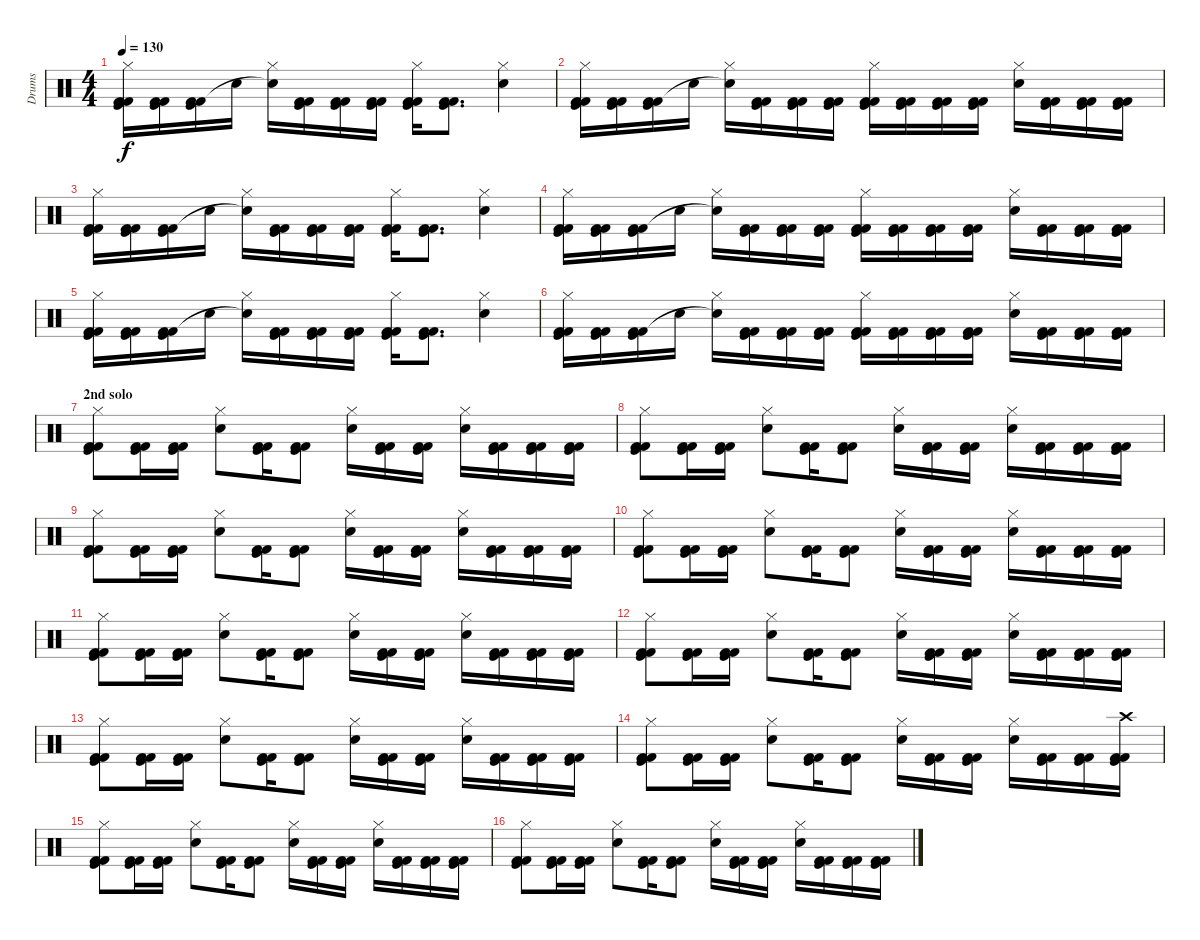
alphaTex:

\track ("Drums" "Drums") {instrument percussion}
\staff {score}
\articulation defaults
\ts (4 4)
\tempo 130
\clef neutral
\ks c
("Hi-Hat (closed)" "Kick (hit)" "Kick (hit) 2" "Kick (hit) 2").16{dy f} ("Kick (hit)" "Kick (hit) 2" "Kick (hit) 2").16 ("Kick (hit)" "Kick (hit) 2" "Kick (hit) 2").16 "Electric Snare (hit)".16 ("Hi-Hat (closed)" "Snare (hit)"{t}).16 ("Kick (hit)" "Kick (hit) 2" "Kick (hit) 2").16 ("Kick (hit)" "Kick (hit) 2" "Kick (hit) 2").16 ("Kick (hit)" "Kick (hit) 2" "Kick (hit) 2").16 ("Hi-Hat (closed)" "Kick (hit)" "Kick (hit) 2" "Kick (hit) 2").16 ("Kick (hit)" "Kick (hit) 2" "Kick (hit) 2").8{d} ("Hi-Hat (closed)" "Electric Snare (hit)").4 |
("Hi-Hat (closed)" "Kick (hit)" "Kick (hit) 2" "Kick (hit) 2").16 ("Kick (hit)" "Kick (hit) 2" "Kick (hit) 2").16 ("Kick (hit)" "Kick (hit) 2" "Kick (hit) 2").16 "Electric Snare (hit)".16 ("Hi-Hat (closed)" "Snare (hit)"{t}).16 ("Kick (hit)" "Kick (hit) 2" "Kick (hit) 2").16 ("Kick (hit)" "Kick (hit) 2" "Kick (hit) 2").16 ("Kick (hit)" "Kick (hit) 2" "Kick (hit) 2").16 ("Hi-Hat (closed)" "Kick (hit)" "Kick (hit) 2" "Kick (hit) 2").16 ("Kick (hit)" "Kick (hit) 2" "Kick (hit) 2").16 ("Kick (hit)" "Kick (hit) 2" "Kick (hit) 2").16 ("Kick (hit)" "Kick (hit) 2" "Kick (hit) 2").16 ("Hi-Hat (closed)" "Electric Snare (hit)").16 ("Kick (hit)" "Kick (hit) 2" "Kick (hit) 2").16 ("Kick (hit)" "Kick (hit) 2" "Kick (hit) 2").16 ("Kick (hit)" "Kick (hit) 2" "Kick (hit) 2").16 |
("Hi-Hat (closed)" "Kick (hit)" "Kick (hit) 2" "Kick (hit) 2").16 ("Kick (hit)" "Kick (hit) 2" "Kick (hit) 2").16 ("Kick (hit)" "Kick (hit) 2" "Kick (hit) 2").16 "Electric Snare (hit)".16 ("Hi-Hat (closed)" "Snare (hit)"{t}).16 ("Kick (hit)" "Kick (hit) 2" "Kick (hit) 2").16 ("Kick (hit)" "Kick (hit) 2" "Kick (hit) 2").16 ("Kick (hit)" "Kick (hit) 2" "Kick (hit) 2").16 ("Hi-Hat (closed)" "Kick (hit)" "Kick (hit) 2" "Kick (hit) 2").16 ("Kick (hit)" "Kick (hit) 2" "Kick (hit) 2").8{d} ("Hi-Hat (closed)" "Electric Snare (hit)").4 |
("Hi-Hat (closed)" "Kick (hit)" "Kick (hit) 2" "Kick (hit) 2").16 ("Kick (hit)" "Kick (hit) 2" "Kick (hit) 2").16 ("Kick (hit)" "Kick (hit) 2" "Kick (hit) 2").16 "Electric Snare (hit)".16 ("Hi-Hat (closed)" "Snare (hit)"{t}).16 ("Kick (hit)" "Kick (hit) 2" "Kick (hit) 2").16 ("Kick (hit)" "Kick (hit) 2" "Kick (hit) 2").16 ("Kick (hit)" "Kick (hit) 2" "Kick (hit) 2").16 ("Hi-Hat (closed)" "Kick (hit)" "Kick (hit) 2" "Kick (hit) 2").16 ("Kick (hit)" "Kick (hit) 2" "Kick (hit) 2").16 ("Kick (hit)" "Kick (hit) 2" "Kick (hit) 2").16 ("Kick (hit)" "Kick (hit) 2" "Kick (hit) 2").16 ("Hi-Hat (closed)" "Electric Snare (hit)").16 ("Kick (hit)" "Kick (hit) 2" "Kick (hit) 2").16 ("Kick (hit)" "Kick (hit) 2" "Kick (hit) 2").16 ("Kick (hit)" "Kick (hit) 2" "Kick (hit) 2").16 |
("Hi-Hat (closed)" "Kick (hit)" "Kick (hit) 2" "Kick (hit) 2").16 ("Kick (hit)" "Kick (hit) 2" "Kick (hit) 2").16 ("Kick (hit)" "Kick (hit) 2" "Kick (hit) 2").16 "Electric Snare (hit)".16 ("Hi-Hat (closed)" "Snare (hit)"{t}).16 ("Kick (hit)" "Kick (hit) 2" "Kick (hit) 2").16 ("Kick (hit)" "Kick (hit) 2" "Kick (hit) 2").16 ("Kick (hit)" "Kick (hit) 2" "Kick (hit) 2").16 ("Hi-Hat (closed)" "Kick (hit)" "Kick (hit) 2" "Kick (hit) 2").16 ("Kick (hit)" "Kick (hit) 2" "Kick (hit) 2").8{d} ("Hi-Hat (closed)" "Electric Snare (hit)").4 |
("Hi-Hat (closed)" "Kick (hit)" "Kick (hit) 2" "Kick (hit) 2").16 ("Kick (hit)" "Kick (hit) 2" "Kick (hit) 2").16 ("Kick (hit)" "Kick (hit) 2" "Kick (hit) 2").16 "Electric Snare (hit)".16 ("Hi-Hat (closed)" "Snare (hit)"{t}).16 ("Kick (hit)" "Kick (hit) 2" "Kick (hit) 2").16 ("Kick (hit)" "Kick (hit) 2" "Kick (hit) 2").16 ("Kick (hit)" "Kick (hit) 2" "Kick (hit) 2").16 ("Hi-Hat (closed)" "Kick (hit)" "Kick (hit) 2" "Kick (hit) 2").16 ("Kick (hit)" "Kick (hit) 2" "Kick (hit) 2").16 ("Kick (hit)" "Kick (hit) 2" "Kick (hit) 2").16 ("Kick (hit)" "Kick (hit) 2" "Kick (hit) 2").16 ("Hi-Hat (closed)" "Electric Snare (hit)").16 ("Kick (hit)" "Kick (hit) 2" "Kick (hit) 2").16 ("Kick (hit)" "Kick (hit) 2" "Kick (hit) 2").16 ("Kick (hit)" "Kick (hit) 2" "Kick (hit) 2").16 |
\section ("" "2nd solo")
("Hi-Hat (closed)" "Kick (hit)" "Kick (hit) 2" "Kick (hit) 2").8 ("Kick (hit)" "Kick (hit) 2" "Kick (hit) 2").16 ("Kick (hit)" "Kick (hit) 2" "Kick (hit) 2").16 ("Hi-Hat (closed)" "Electric Snare (hit)").8 ("Kick (hit)" "Kick (hit) 2" "Kick (hit) 2").16 ("Kick (hit)" "Kick (hit) 2" "Kick (hit) 2").8 ("Hi-Hat (closed)" "Electric Snare (hit)").16 ("Kick (hit)" "Kick (hit) 2" "Kick (hit) 2").16 ("Kick (hit)" "Kick (hit) 2" "Kick (hit) 2").16 ("Hi-Hat (closed)" "Electric Snare (hit)").16 ("Kick (hit)" "Kick (hit) 2" "Kick (hit) 2").16 ("Kick (hit)" "Kick (hit) 2" "Kick (hit) 2").16 ("Kick (hit)" "Kick (hit) 2" "Kick (hit) 2").16 |
("Hi-Hat (closed)" "Kick (hit)" "Kick (hit) 2" "Kick (hit) 2").8 ("Kick (hit)" "Kick (hit) 2" "Kick (hit) 2").16 ("Kick (hit)" "Kick (hit) 2" "Kick (hit) 2").16 ("Hi-Hat (closed)" "Electric Snare (hit)").8 ("Kick (hit)" "Kick (hit) 2" "Kick (hit) 2").16 ("Kick (hit)" "Kick (hit) 2" "Kick (hit) 2").8 ("Hi-Hat (closed)" "Electric Snare (hit)").16 ("Kick (hit)" "Kick (hit) 2" "Kick (hit) 2").16 ("Kick (hit)" "Kick (hit) 2" "Kick (hit) 2").16 ("Hi-Hat (closed)" "Electric Snare (hit)").16 ("Kick (hit)" "Kick (hit) 2" "Kick (hit) 2").16 ("Kick (hit)" "Kick (hit) 2" "Kick (hit) 2").16 ("Kick (hit)" "Kick (hit) 2" "Kick (hit) 2").16 |
("Hi-Hat (closed)" "Kick (hit)" "Kick (hit) 2" "Kick (hit) 2").8 ("Kick (hit)" "Kick (hit) 2" "Kick (hit) 2").16 ("Kick (hit)" "Kick (hit) 2" "Kick (hit) 2").16 ("Hi-Hat (closed)" "Electric Snare (hit)").8 ("Kick (hit)" "Kick (hit) 2" "Kick (hit) 2").16 ("Kick (hit)" "Kick (hit) 2" "Kick (hit) 2").8 ("Hi-Hat (closed)" "Electric Snare (hit)").16 ("Kick (hit)" "Kick (hit) 2" "Kick (hit) 2").16 ("Kick (hit)" "Kick (hit) 2" "Kick (hit) 2").16 ("Hi-Hat (closed)" "Electric Snare (hit)").16 ("Kick (hit)" "Kick (hit) 2" "Kick (hit) 2").16 ("Kick (hit)" "Kick (hit) 2" "Kick (hit) 2").16 ("Kick (hit)" "Kick (hit) 2" "Kick (hit) 2").16 |
("Hi-Hat (closed)" "Kick (hit)" "Kick (hit) 2" "Kick (hit) 2").8 ("Kick (hit)" "Kick (hit) 2" "Kick (hit) 2").16 ("Kick (hit)" "Kick (hit) 2" "Kick (hit) 2").16 ("Hi-Hat (closed)" "Electric Snare (hit)").8 ("Kick (hit)" "Kick (hit) 2" "Kick (hit) 2").16 ("Kick (hit)" "Kick (hit) 2" "Kick (hit) 2").8 ("Hi-Hat (closed)" "Electric Snare (hit)").16 ("Kick (hit)" "Kick (hit) 2" "Kick (hit) 2").16 ("Kick (hit)" "Kick (hit) 2" "Kick (hit) 2").16 ("Hi-Hat (closed)" "Electric Snare (hit)").16 ("Kick (hit)" "Kick (hit) 2" "Kick (hit) 2").16 ("Kick (hit)" "Kick (hit) 2" "Kick (hit) 2").16 ("Kick (hit)" "Kick (hit) 2" "Kick (hit) 2").16 |
("Hi-Hat (closed)" "Kick (hit)" "Kick (hit) 2" "Kick (hit) 2").8 ("Kick (hit)" "Kick (hit) 2" "Kick (hit) 2").16 ("Kick (hit)" "Kick (hit) 2" "Kick (hit) 2").16 ("Hi-Hat (closed)" "Electric Snare (hit)").8 ("Kick (hit)" "Kick (hit) 2" "Kick (hit) 2").16 ("Kick (hit)" "Kick (hit) 2" "Kick (hit) 2").8 ("Hi-Hat (closed)" "Electric Snare (hit)").16 ("Kick (hit)" "Kick (hit) 2" "Kick (hit) 2").16 ("Kick (hit)" "Kick (hit) 2" "Kick (hit) 2").16 ("Hi-Hat (closed)" "Electric Snare (hit)").16 ("Kick (hit)" "Kick (hit) 2" "Kick (hit) 2").16 ("Kick (hit)" "Kick (hit) 2" "Kick (hit) 2").16 ("Kick (hit)" "Kick (hit) 2" "Kick (hit) 2").16 |
("Hi-Hat (closed)" "Kick (hit)" "Kick (hit) 2" "Kick (hit) 2").8 ("Kick (hit)" "Kick (hit) 2" "Kick (hit) 2").16 ("Kick (hit)" "Kick (hit) 2" "Kick (hit) 2").16 ("Hi-Hat (closed)" "Electric Snare (hit)").8 ("Kick (hit)" "Kick (hit) 2" "Kick (hit) 2").16 ("Kick (hit)" "Kick (hit) 2" "Kick (hit) 2").8 ("Hi-Hat (closed)" "Electric Snare (hit)").16 ("Kick (hit)" "Kick (hit) 2" "Kick (hit) 2").16 ("Kick (hit)" "Kick (hit) 2" "Kick (hit) 2").16 ("Hi-Hat (closed)" "Electric Snare (hit)").16 ("Kick (hit)" "Kick (hit) 2" "Kick (hit) 2").16 ("Kick (hit)" "Kick (hit) 2" "Kick (hit) 2").16 ("Kick (hit)" "Kick (hit) 2" "Kick (hit) 2").16 |
("Hi-Hat (closed)" "Kick (hit)" "Kick (hit) 2" "Kick (hit) 2").8 ("Kick (hit)" "Kick (hit) 2" "Kick (hit) 2").16 ("Kick (hit)" "Kick (hit) 2" "Kick (hit) 2").16 ("Hi-Hat (closed)" "Electric Snare (hit)").8 ("Kick (hit)" "Kick (hit) 2" "Kick (hit) 2").16 ("Kick (hit)" "Kick (hit) 2" "Kick (hit) 2").8 ("Hi-Hat (closed)" "Electric Snare (hit)").16 ("Kick (hit)" "Kick (hit) 2" "Kick (hit) 2").16 ("Kick (hit)" "Kick (hit) 2" "Kick (hit) 2").16 ("Hi-Hat (closed)" "Electric Snare (hit)").16 ("Kick (hit)" "Kick (hit) 2" "Kick (hit) 2").16 ("Kick (hit)" "Kick (hit) 2" "Kick (hit) 2").16 ("Kick (hit)" "Kick (hit) 2" "Kick (hit) 2").16 |
("Hi-Hat (closed)" "Kick (hit)" "Kick (hit) 2" "Kick (hit) 2").8 ("Kick (hit)" "Kick (hit) 2" "Kick (hit) 2").16 ("Kick (hit)" "Kick (hit) 2" "Kick (hit) 2").16 ("Hi-Hat (closed)" "Electric Snare (hit)").8 ("Kick (hit)" "Kick (hit) 2" "Kick (hit) 2").16 ("Kick (hit)" "Kick (hit) 2" "Kick (hit) 2").8 ("Hi-Hat (closed)" "Electric Snare (hit)").16 ("Kick (hit)" "Kick (hit) 2" "Kick (hit) 2").16 ("Kick (hit)" "Kick (hit) 2" "Kick (hit) 2").16 ("Hi-Hat (closed)" "Electric Snare (hit)").16 ("Kick (hit)" "Kick (hit) 2" "Kick (hit) 2").16 ("Kick (hit)" "Kick (hit) 2" "Kick (hit) 2").16 ("Crash high (hit)" "Kick (hit)" "Kick (hit) 2" "Kick (hit) 2").16 |
("Hi-Hat (closed)" "Kick (hit)" "Kick (hit) 2" "Kick (hit) 2").8 ("Kick (hit)" "Kick (hit) 2" "Kick (hit) 2").16 ("Kick (hit)" "Kick (hit) 2" "Kick (hit) 2").16 ("Hi-Hat (closed)" "Electric Snare (hit)").8 ("Kick (hit)" "Kick (hit) 2" "Kick (hit) 2").16 ("Kick (hit)" "Kick (hit) 2" "Kick (hit) 2").8 ("Hi-Hat (closed)" "Electric Snare (hit)").16 ("Kick (hit)" "Kick (hit) 2" "Kick (hit) 2").16 ("Kick (hit)" "Kick (hit) 2" "Kick (hit) 2").16 ("Hi-Hat (closed)" "Electric Snare (hit)").16 ("Kick (hit)" "Kick (hit) 2" "Kick (hit) 2").16 ("Kick (hit)" "Kick (hit) 2" "Kick (hit) 2").16 ("Kick (hit)" "Kick (hit) 2" "Kick (hit) 2").16 |
("Hi-Hat (closed)" "Kick (hit)" "Kick (hit) 2" "Kick (hit) 2").8 ("Kick (hit)" "Kick (hit) 2" "Kick (hit) 2").16 ("Kick (hit)" "Kick (hit) 2" "Kick (hit) 2").16 ("Hi-Hat (closed)" "Electric Snare (hit)").8 ("Kick (hit)" "Kick (hit) 2" "Kick (hit) 2").16 ("Kick (hit)" "Kick (hit) 2" "Kick (hit) 2").8 ("Hi-Hat (closed)" "Electric Snare (hit)").16 ("Kick (hit)" "Kick (hit) 2" "Kick (hit) 2").16 ("Kick (hit)" "Kick (hit) 2" "Kick (hit) 2").16 ("Hi-Hat (closed)" "Electric Snare (hit)").16 ("Kick (hit)" "Kick (hit) 2" "Kick (hit) 2").16 ("Kick (hit)" "Kick (hit) 2" "Kick (hit) 2").16 ("Kick (hit)" "Kick (hit) 2" "Kick (hit) 2").16
